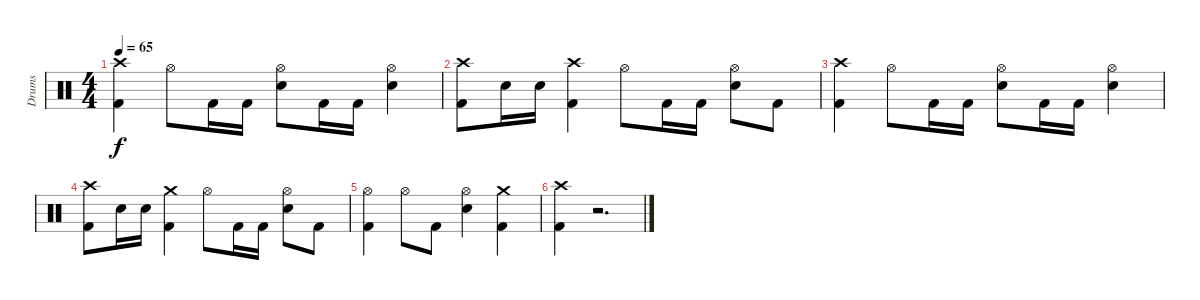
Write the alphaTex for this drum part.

\track ("Drums" "Drums") {instrument percussion}
\staff {score}
\articulation defaults
\ts (4 4)
\tempo 65
\clef neutral
\ks c
("Crash high (hit)" "Kick (hit) 2").4{dy f} "Hi-Hat (open)".8 "Kick (hit) 2".16 "Kick (hit) 2".16 ("Hi-Hat (open)" "Electric Snare (hit)").8 "Kick (hit) 2".16 "Kick (hit) 2".16 ("Hi-Hat (open)" "Electric Snare (hit)").4 |
("Crash high (hit)" "Kick (hit) 2").8 "Electric Snare (hit)".16 "Electric Snare (hit)".16 ("Crash high (hit)" "Kick (hit) 2").4 "Hi-Hat (open)".8 "Kick (hit) 2".16 "Kick (hit) 2".16 ("Hi-Hat (open)" "Electric Snare (hit)").8 "Kick (hit) 2".8 |
("Crash high (hit)" "Kick (hit) 2").4 "Hi-Hat (open)".8 "Kick (hit) 2".16 "Kick (hit) 2".16 ("Hi-Hat (open)" "Electric Snare (hit)").8 "Kick (hit) 2".16 "Kick (hit) 2".16 ("Hi-Hat (open)" "Electric Snare (hit)").4 |
("Crash high (hit)" "Kick (hit) 2").8 "Electric Snare (hit)".16 "Electric Snare (hit)".16 ("Crash medium (hit)" "Kick (hit) 2").4 "Hi-Hat (open)".8 "Kick (hit) 2".16 "Kick (hit) 2".16 ("Hi-Hat (open)" "Electric Snare (hit)").8 "Kick (hit) 2".8 |
("Hi-Hat (open)" "Kick (hit) 2").4 "Hi-Hat (open)".8 "Kick (hit) 2".8 ("Hi-Hat (open)" "Electric Snare (hit)").4 ("Crash medium (hit)" "Kick (hit) 2").4 |
("Crash high (hit)" "Kick (hit) 2").4 r.2{d}
